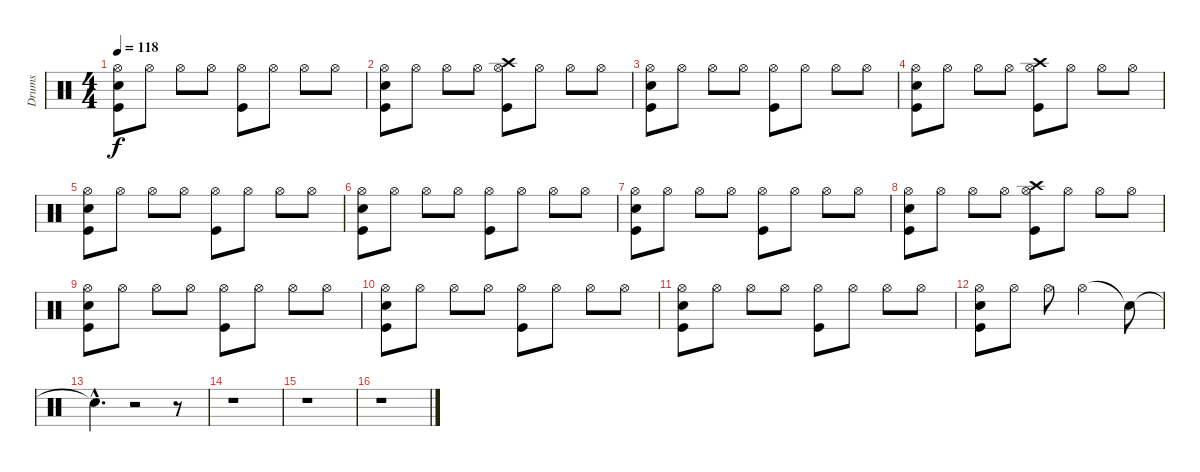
\track ("Drums" "Drums") {instrument percussion}
\staff {score}
\articulation defaults
\ts (4 4)
\tempo 118
\clef neutral
\ks c
("Kick (hit)" "Snare (hit) 2" "Hi-Hat (open)").8{dy f} "Hi-Hat (open)".8 "Hi-Hat (open)".8 "Hi-Hat (open)".8 ("Kick (hit)" "Hi-Hat (open)").8 "Hi-Hat (open)".8 "Hi-Hat (open)".8 "Hi-Hat (open)".8 |
("Kick (hit)" "Snare (hit) 2" "Hi-Hat (open)").8 "Hi-Hat (open)".8 "Hi-Hat (open)".8 "Hi-Hat (open)".8 ("Kick (hit)" "Hi-Hat (open)" "Crash high (hit)").8 "Hi-Hat (open)".8 "Hi-Hat (open)".8 "Hi-Hat (open)".8 |
("Kick (hit)" "Snare (hit) 2" "Hi-Hat (open)").8 "Hi-Hat (open)".8 "Hi-Hat (open)".8 "Hi-Hat (open)".8 ("Kick (hit)" "Hi-Hat (open)").8 "Hi-Hat (open)".8 "Hi-Hat (open)".8 "Hi-Hat (open)".8 |
("Kick (hit)" "Snare (hit) 2" "Hi-Hat (open)").8 "Hi-Hat (open)".8 "Hi-Hat (open)".8 "Hi-Hat (open)".8 ("Kick (hit)" "Hi-Hat (open)" "Crash high (hit)").8 "Hi-Hat (open)".8 "Hi-Hat (open)".8 "Hi-Hat (open)".8 |
("Kick (hit)" "Snare (hit) 2" "Hi-Hat (open)").8 "Hi-Hat (open)".8 "Hi-Hat (open)".8 "Hi-Hat (open)".8 ("Kick (hit)" "Hi-Hat (open)").8 "Hi-Hat (open)".8 "Hi-Hat (open)".8 "Hi-Hat (open)".8 |
("Kick (hit)" "Snare (hit) 2" "Hi-Hat (open)").8 "Hi-Hat (open)".8 "Hi-Hat (open)".8 "Hi-Hat (open)".8 ("Kick (hit)" "Hi-Hat (open)").8 "Hi-Hat (open)".8 "Hi-Hat (open)".8 "Hi-Hat (open)".8 |
("Kick (hit)" "Snare (hit) 2" "Hi-Hat (open)").8 "Hi-Hat (open)".8 "Hi-Hat (open)".8 "Hi-Hat (open)".8 ("Kick (hit)" "Hi-Hat (open)").8 "Hi-Hat (open)".8 "Hi-Hat (open)".8 "Hi-Hat (open)".8 |
("Kick (hit)" "Snare (hit) 2" "Hi-Hat (open)").8 "Hi-Hat (open)".8 "Hi-Hat (open)".8 "Hi-Hat (open)".8 ("Kick (hit)" "Hi-Hat (open)" "Crash high (hit)").8 "Hi-Hat (open)".8 "Hi-Hat (open)".8 "Hi-Hat (open)".8 |
("Kick (hit)" "Snare (hit) 2" "Hi-Hat (open)").8 "Hi-Hat (open)".8 "Hi-Hat (open)".8 "Hi-Hat (open)".8 ("Kick (hit)" "Hi-Hat (open)").8 "Hi-Hat (open)".8 "Hi-Hat (open)".8 "Hi-Hat (open)".8 |
("Kick (hit)" "Snare (hit) 2" "Hi-Hat (open)").8 "Hi-Hat (open)".8 "Hi-Hat (open)".8 "Hi-Hat (open)".8 ("Kick (hit)" "Hi-Hat (open)").8 "Hi-Hat (open)".8 "Hi-Hat (open)".8 "Hi-Hat (open)".8 |
("Kick (hit)" "Snare (hit) 2" "Hi-Hat (open)").8 "Hi-Hat (open)".8 "Hi-Hat (open)".8 "Hi-Hat (open)".8 ("Kick (hit)" "Hi-Hat (open)").8 "Hi-Hat (open)".8 "Hi-Hat (open)".8 "Hi-Hat (open)".8 |
("Kick (hit)" "Snare (hit) 2" "Hi-Hat (open)").8 "Hi-Hat (open)".8 "Hi-Hat (open)".8 "Hi-Hat (open)".2 "Snare (hit)"{t}.8 |
"Snare (hit)"{hac t}.4{d} r.2 r.8 |
r.1 |
r.1 |
r.1
